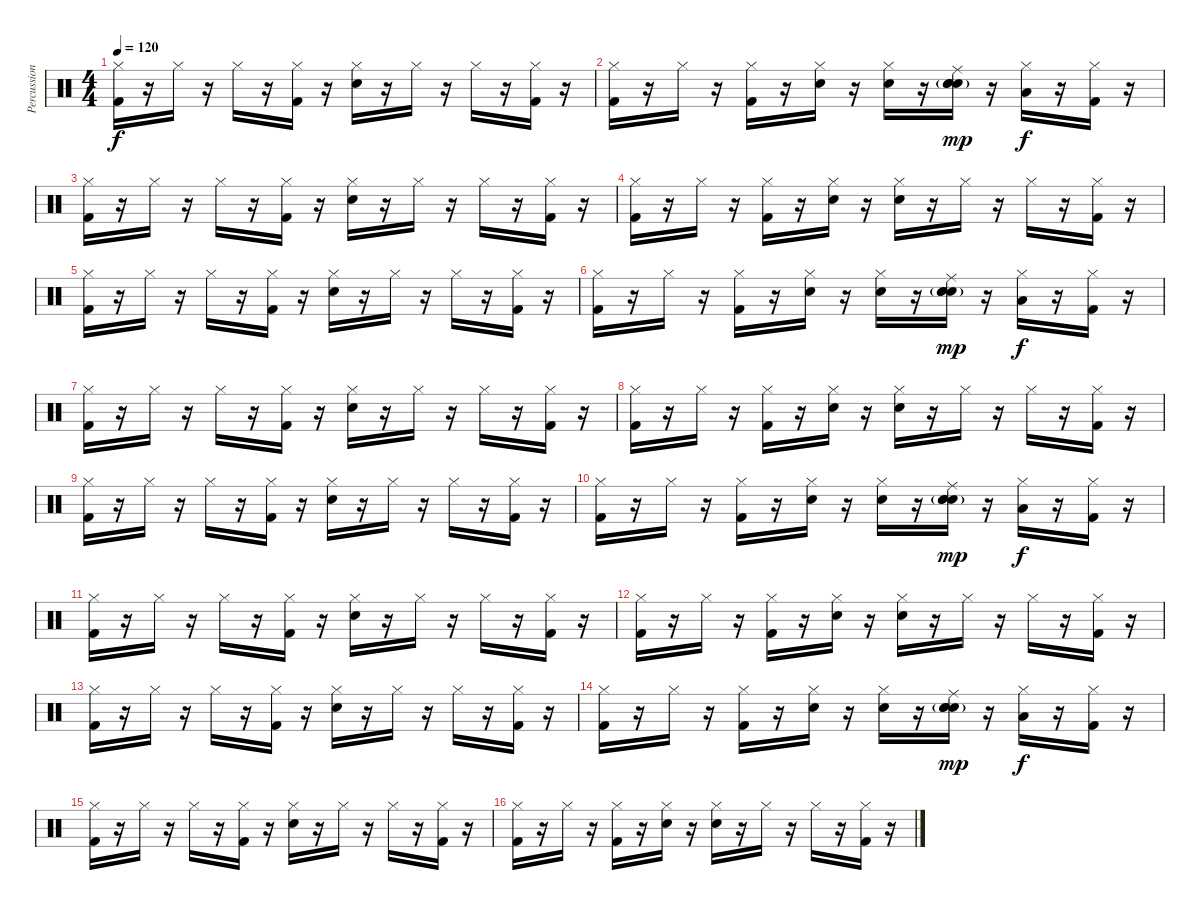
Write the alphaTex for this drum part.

\track ("Percussion" "Percussion") {instrument percussion}
\staff {score}
\articulation defaults
\ts (4 4)
\tempo 120
\clef neutral
\ks c
("Hi-Hat (closed)" "Kick (hit) 2").16{dy f} r.16 "Hi-Hat (closed)".16 r.16 "Hi-Hat (closed)".16 r.16 ("Hi-Hat (closed)" "Kick (hit) 2").16 r.16 ("Hi-Hat (closed)" "Snare (hit) 2").16 r.16 "Hi-Hat (closed)".16 r.16 "Hi-Hat (closed)".16 r.16 ("Hi-Hat (closed)" "Kick (hit) 2").16 r.16 |
("Hi-Hat (closed)" "Kick (hit) 2").16 r.16 "Hi-Hat (closed)".16 r.16 ("Hi-Hat (closed)" "Kick (hit) 2").16 r.16 ("Hi-Hat (closed)" "Snare (hit)").16 r.16 ("Hi-Hat (closed)" "Snare (hit) 2").16 r.16 ("Ride (middle)" "Snare (hit)"{g} "Electric Snare (hit)"{g} "Snare (hit) 2"{g}).16{dy mp} r.16 ("Hi-Hat (closed)" "Low Floor Tom (hit)").16{dy f} r.16 ("Hi-Hat (closed)" "Kick (hit) 2").16 r.16 |
("Hi-Hat (closed)" "Kick (hit) 2").16 r.16 "Hi-Hat (closed)".16 r.16 "Hi-Hat (closed)".16 r.16 ("Hi-Hat (closed)" "Kick (hit) 2").16 r.16 ("Hi-Hat (closed)" "Snare (hit) 2").16 r.16 "Hi-Hat (closed)".16 r.16 "Hi-Hat (closed)".16 r.16 ("Hi-Hat (closed)" "Kick (hit) 2").16 r.16 |
("Hi-Hat (closed)" "Kick (hit) 2").16 r.16 "Hi-Hat (closed)".16 r.16 ("Hi-Hat (closed)" "Kick (hit) 2").16 r.16 ("Hi-Hat (closed)" "Snare (hit)").16 r.16 ("Hi-Hat (closed)" "Snare (hit) 2").16 r.16 "Hi-Hat (closed)".16 r.16 "Hi-Hat (closed)".16 r.16 ("Hi-Hat (closed)" "Kick (hit) 2").16 r.16 |
("Hi-Hat (closed)" "Kick (hit) 2").16 r.16 "Hi-Hat (closed)".16 r.16 "Hi-Hat (closed)".16 r.16 ("Hi-Hat (closed)" "Kick (hit) 2").16 r.16 ("Hi-Hat (closed)" "Snare (hit) 2").16 r.16 "Hi-Hat (closed)".16 r.16 "Hi-Hat (closed)".16 r.16 ("Hi-Hat (closed)" "Kick (hit) 2").16 r.16 |
("Hi-Hat (closed)" "Kick (hit) 2").16 r.16 "Hi-Hat (closed)".16 r.16 ("Hi-Hat (closed)" "Kick (hit) 2").16 r.16 ("Hi-Hat (closed)" "Snare (hit)").16 r.16 ("Hi-Hat (closed)" "Snare (hit) 2").16 r.16 ("Ride (middle)" "Snare (hit)"{g} "Electric Snare (hit)"{g} "Snare (hit) 2"{g}).16{dy mp} r.16 ("Hi-Hat (closed)" "Low Floor Tom (hit)").16{dy f} r.16 ("Hi-Hat (closed)" "Kick (hit) 2").16 r.16 |
("Hi-Hat (closed)" "Kick (hit) 2").16 r.16 "Hi-Hat (closed)".16 r.16 "Hi-Hat (closed)".16 r.16 ("Hi-Hat (closed)" "Kick (hit) 2").16 r.16 ("Hi-Hat (closed)" "Snare (hit) 2").16 r.16 "Hi-Hat (closed)".16 r.16 "Hi-Hat (closed)".16 r.16 ("Hi-Hat (closed)" "Kick (hit) 2").16 r.16 |
("Hi-Hat (closed)" "Kick (hit) 2").16 r.16 "Hi-Hat (closed)".16 r.16 ("Hi-Hat (closed)" "Kick (hit) 2").16 r.16 ("Hi-Hat (closed)" "Snare (hit)").16 r.16 ("Hi-Hat (closed)" "Snare (hit) 2").16 r.16 "Hi-Hat (closed)".16 r.16 "Hi-Hat (closed)".16 r.16 ("Hi-Hat (closed)" "Kick (hit) 2").16 r.16 |
("Hi-Hat (closed)" "Kick (hit) 2").16 r.16 "Hi-Hat (closed)".16 r.16 "Hi-Hat (closed)".16 r.16 ("Hi-Hat (closed)" "Kick (hit) 2").16 r.16 ("Hi-Hat (closed)" "Snare (hit) 2").16 r.16 "Hi-Hat (closed)".16 r.16 "Hi-Hat (closed)".16 r.16 ("Hi-Hat (closed)" "Kick (hit) 2").16 r.16 |
("Hi-Hat (closed)" "Kick (hit) 2").16 r.16 "Hi-Hat (closed)".16 r.16 ("Hi-Hat (closed)" "Kick (hit) 2").16 r.16 ("Hi-Hat (closed)" "Snare (hit)").16 r.16 ("Hi-Hat (closed)" "Snare (hit) 2").16 r.16 ("Ride (middle)" "Snare (hit)"{g} "Electric Snare (hit)"{g} "Snare (hit) 2"{g}).16{dy mp} r.16 ("Hi-Hat (closed)" "Low Floor Tom (hit)").16{dy f} r.16 ("Hi-Hat (closed)" "Kick (hit) 2").16 r.16 |
("Hi-Hat (closed)" "Kick (hit) 2").16 r.16 "Hi-Hat (closed)".16 r.16 "Hi-Hat (closed)".16 r.16 ("Hi-Hat (closed)" "Kick (hit) 2").16 r.16 ("Hi-Hat (closed)" "Snare (hit) 2").16 r.16 "Hi-Hat (closed)".16 r.16 "Hi-Hat (closed)".16 r.16 ("Hi-Hat (closed)" "Kick (hit) 2").16 r.16 |
("Hi-Hat (closed)" "Kick (hit) 2").16 r.16 "Hi-Hat (closed)".16 r.16 ("Hi-Hat (closed)" "Kick (hit) 2").16 r.16 ("Hi-Hat (closed)" "Snare (hit)").16 r.16 ("Hi-Hat (closed)" "Snare (hit) 2").16 r.16 "Hi-Hat (closed)".16 r.16 "Hi-Hat (closed)".16 r.16 ("Hi-Hat (closed)" "Kick (hit) 2").16 r.16 |
("Hi-Hat (closed)" "Kick (hit) 2").16 r.16 "Hi-Hat (closed)".16 r.16 "Hi-Hat (closed)".16 r.16 ("Hi-Hat (closed)" "Kick (hit) 2").16 r.16 ("Hi-Hat (closed)" "Snare (hit) 2").16 r.16 "Hi-Hat (closed)".16 r.16 "Hi-Hat (closed)".16 r.16 ("Hi-Hat (closed)" "Kick (hit) 2").16 r.16 |
("Hi-Hat (closed)" "Kick (hit) 2").16 r.16 "Hi-Hat (closed)".16 r.16 ("Hi-Hat (closed)" "Kick (hit) 2").16 r.16 ("Hi-Hat (closed)" "Snare (hit)").16 r.16 ("Hi-Hat (closed)" "Snare (hit) 2").16 r.16 ("Ride (middle)" "Snare (hit)"{g} "Electric Snare (hit)"{g} "Snare (hit) 2"{g}).16{dy mp} r.16 ("Hi-Hat (closed)" "Low Floor Tom (hit)").16{dy f} r.16 ("Hi-Hat (closed)" "Kick (hit) 2").16 r.16 |
("Hi-Hat (closed)" "Kick (hit) 2").16 r.16 "Hi-Hat (closed)".16 r.16 "Hi-Hat (closed)".16 r.16 ("Hi-Hat (closed)" "Kick (hit) 2").16 r.16 ("Hi-Hat (closed)" "Snare (hit) 2").16 r.16 "Hi-Hat (closed)".16 r.16 "Hi-Hat (closed)".16 r.16 ("Hi-Hat (closed)" "Kick (hit) 2").16 r.16 |
("Hi-Hat (closed)" "Kick (hit) 2").16 r.16 "Hi-Hat (closed)".16 r.16 ("Hi-Hat (closed)" "Kick (hit) 2").16 r.16 ("Hi-Hat (closed)" "Snare (hit)").16 r.16 ("Hi-Hat (closed)" "Snare (hit) 2").16 r.16 "Hi-Hat (closed)".16 r.16 "Hi-Hat (closed)".16 r.16 ("Hi-Hat (closed)" "Kick (hit) 2").16 r.16
